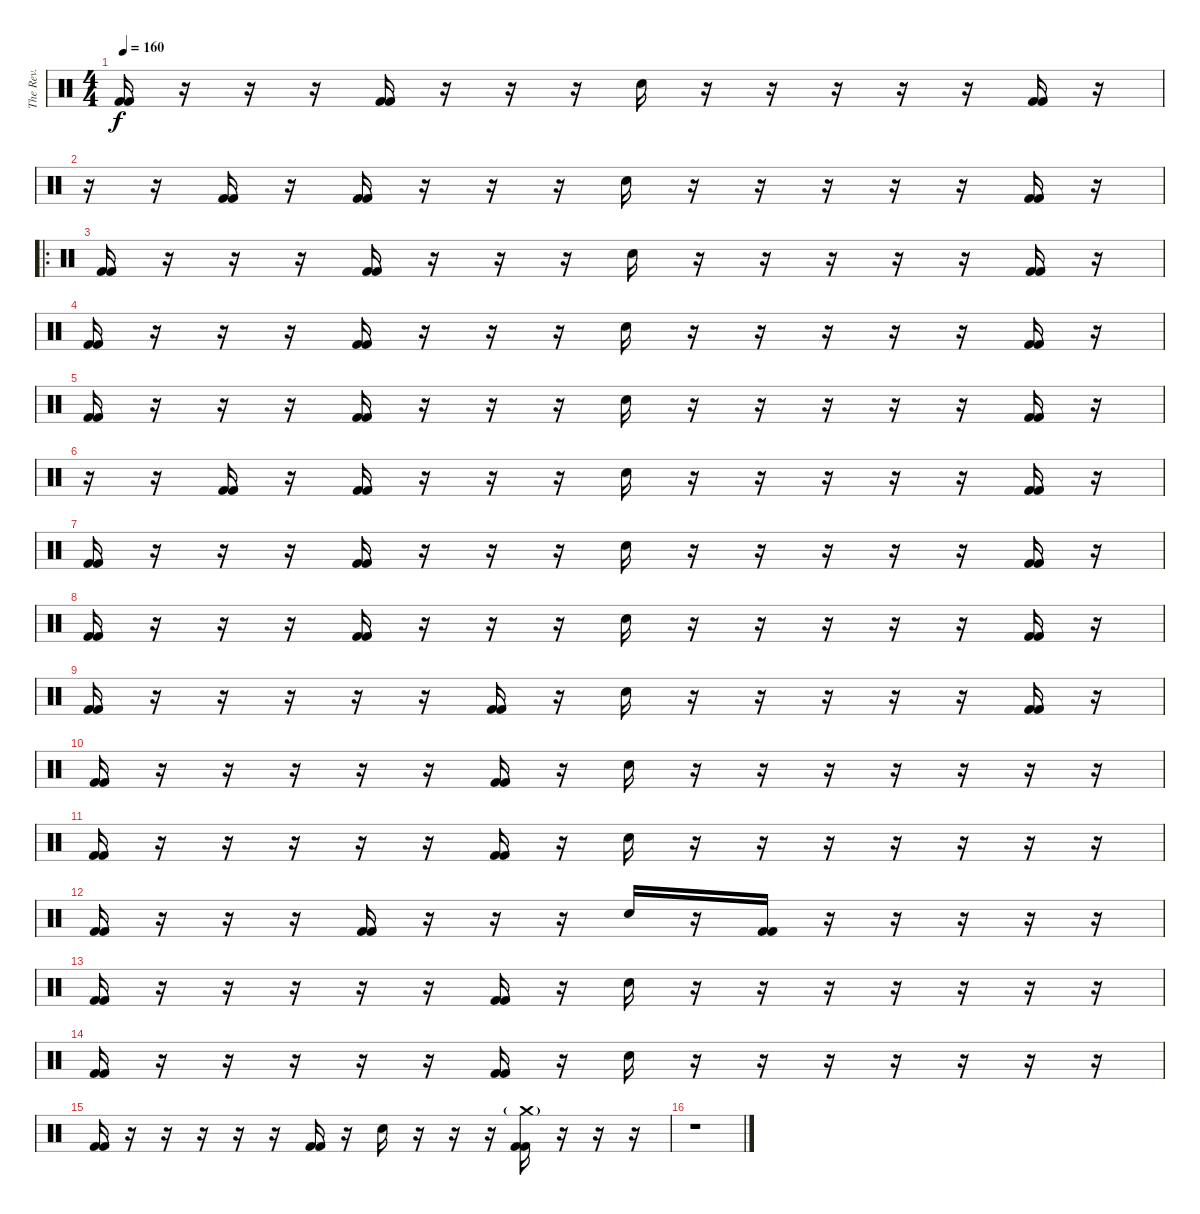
\track ("The Rev." "The Rev.") {instrument percussion}
\staff {score}
\articulation defaults
\ts (4 4)
\tempo 160
\clef neutral
\ks c
("Kick (hit) 2" "Kick (hit) 2").16{dy f} r.16 r.16 r.16 ("Kick (hit) 2" "Kick (hit) 2").16 r.16 r.16 r.16 "Electric Snare (hit)".16 r.16 r.16 r.16 r.16 r.16 ("Kick (hit) 2" "Kick (hit) 2").16 r.16 |
r.16 r.16 ("Kick (hit) 2" "Kick (hit) 2").16 r.16 ("Kick (hit) 2" "Kick (hit) 2").16 r.16 r.16 r.16 "Electric Snare (hit)".16 r.16 r.16 r.16 r.16 r.16 ("Kick (hit) 2" "Kick (hit) 2").16 r.16 |
\ro
("Kick (hit) 2" "Kick (hit) 2").16 r.16 r.16 r.16 ("Kick (hit) 2" "Kick (hit) 2").16 r.16 r.16 r.16 "Electric Snare (hit)".16 r.16 r.16 r.16 r.16 r.16 ("Kick (hit) 2" "Kick (hit) 2").16 r.16 |
("Kick (hit) 2" "Kick (hit) 2").16 r.16 r.16 r.16 ("Kick (hit) 2" "Kick (hit) 2").16 r.16 r.16 r.16 "Electric Snare (hit)".16 r.16 r.16 r.16 r.16 r.16 ("Kick (hit) 2" "Kick (hit) 2").16 r.16 |
("Kick (hit) 2" "Kick (hit) 2").16 r.16 r.16 r.16 ("Kick (hit) 2" "Kick (hit) 2").16 r.16 r.16 r.16 "Electric Snare (hit)".16 r.16 r.16 r.16 r.16 r.16 ("Kick (hit) 2" "Kick (hit) 2").16 r.16 |
r.16 r.16 ("Kick (hit) 2" "Kick (hit) 2").16 r.16 ("Kick (hit) 2" "Kick (hit) 2").16 r.16 r.16 r.16 "Electric Snare (hit)".16 r.16 r.16 r.16 r.16 r.16 ("Kick (hit) 2" "Kick (hit) 2").16 r.16 |
("Kick (hit) 2" "Kick (hit) 2").16 r.16 r.16 r.16 ("Kick (hit) 2" "Kick (hit) 2").16 r.16 r.16 r.16 "Electric Snare (hit)".16 r.16 r.16 r.16 r.16 r.16 ("Kick (hit) 2" "Kick (hit) 2").16 r.16 |
("Kick (hit) 2" "Kick (hit) 2").16 r.16 r.16 r.16 ("Kick (hit) 2" "Kick (hit) 2").16 r.16 r.16 r.16 "Electric Snare (hit)".16 r.16 r.16 r.16 r.16 r.16 ("Kick (hit) 2" "Kick (hit) 2").16 r.16 |
("Kick (hit) 2" "Kick (hit) 2").16 r.16 r.16 r.16 r.16 r.16 ("Kick (hit) 2" "Kick (hit) 2").16 r.16 "Electric Snare (hit)".16 r.16 r.16 r.16 r.16 r.16 ("Kick (hit) 2" "Kick (hit) 2").16 r.16 |
("Kick (hit) 2" "Kick (hit) 2").16 r.16 r.16 r.16 r.16 r.16 ("Kick (hit) 2" "Kick (hit) 2").16 r.16 "Electric Snare (hit)".16 r.16 r.16 r.16 r.16 r.16 r.16 r.16 |
("Kick (hit) 2" "Kick (hit) 2").16 r.16 r.16 r.16 r.16 r.16 ("Kick (hit) 2" "Kick (hit) 2").16 r.16 "Electric Snare (hit)".16 r.16 r.16 r.16 r.16 r.16 r.16 r.16 |
("Kick (hit) 2" "Kick (hit) 2").16 r.16 r.16 r.16 ("Kick (hit) 2" "Kick (hit) 2").16 r.16 r.16 r.16 "Electric Snare (hit)".16 r.16 ("Kick (hit) 2" "Kick (hit) 2").16 r.16 r.16 r.16 r.16 r.16 |
("Kick (hit) 2" "Kick (hit) 2").16 r.16 r.16 r.16 r.16 r.16 ("Kick (hit) 2" "Kick (hit) 2").16 r.16 "Electric Snare (hit)".16 r.16 r.16 r.16 r.16 r.16 r.16 r.16 |
("Kick (hit) 2" "Kick (hit) 2").16 r.16 r.16 r.16 r.16 r.16 ("Kick (hit) 2" "Kick (hit) 2").16 r.16 "Electric Snare (hit)".16 r.16 r.16 r.16 r.16 r.16 r.16 r.16 |
("Kick (hit) 2" "Kick (hit) 2").16 r.16 r.16 r.16 r.16 r.16 ("Kick (hit) 2" "Kick (hit) 2").16 r.16 "Electric Snare (hit)".16 r.16 r.16 r.16 ("Crash medium (hit)"{g} "Kick (hit) 2" "Kick (hit) 2").16 r.16 r.16 r.16 |
r.1
